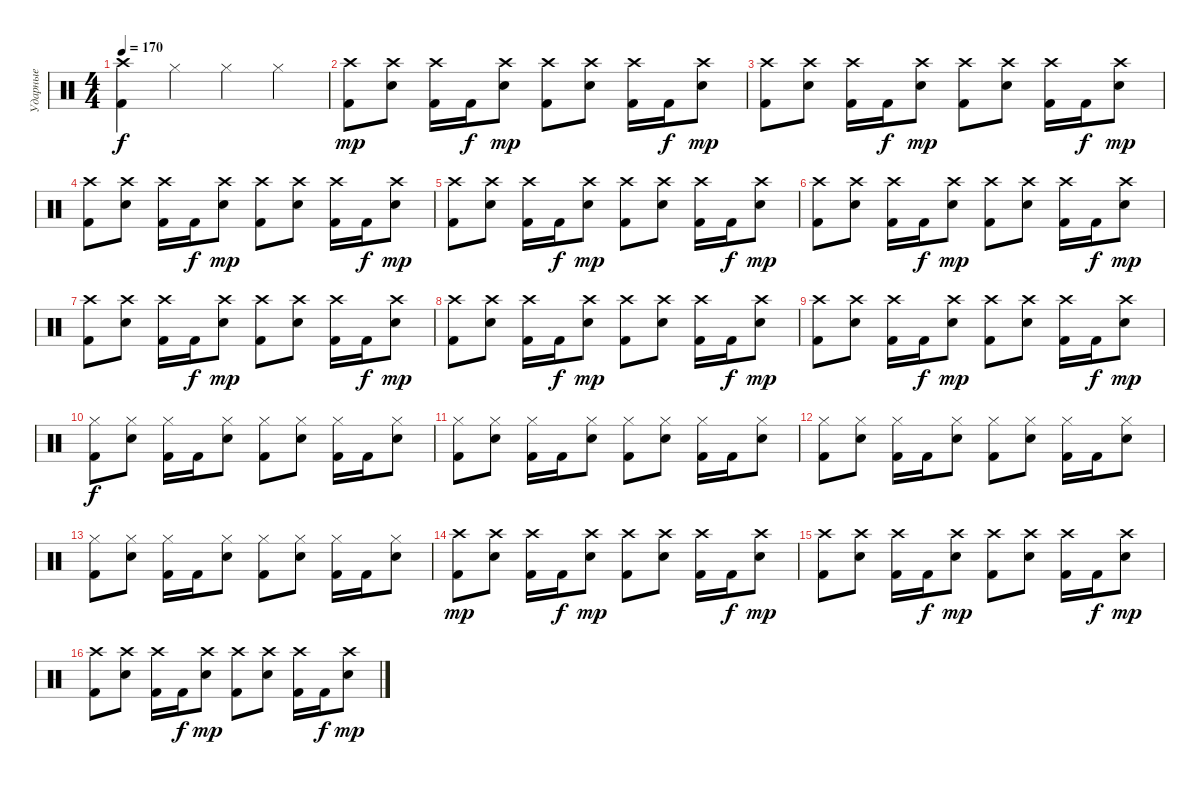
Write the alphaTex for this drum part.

\track ("Ударные" "Ударные") {instrument percussion}
\staff {score}
\articulation defaults
\ts (4 4)
\tempo 170
\clef neutral
\ks c
("Crash high (hit)" "Kick (hit) 2").4{dy f} "Hi-Hat (closed)".4 "Hi-Hat (closed)".4 "Hi-Hat (closed)".4 |
("Crash high (hit)" "Kick (hit) 2").8{dy mp} ("Crash high (hit)" "Electric Snare (hit)").8 ("Crash high (hit)" "Kick (hit) 2").16 "Kick (hit) 2".16{dy f} ("Crash high (hit)" "Electric Snare (hit)").8{dy mp} ("Crash high (hit)" "Kick (hit) 2").8 ("Crash high (hit)" "Electric Snare (hit)").8 ("Crash high (hit)" "Kick (hit) 2").16 "Kick (hit) 2".16{dy f} ("Crash high (hit)" "Electric Snare (hit)").8{dy mp} |
("Crash high (hit)" "Kick (hit) 2").8 ("Crash high (hit)" "Electric Snare (hit)").8 ("Crash high (hit)" "Kick (hit) 2").16 "Kick (hit) 2".16{dy f} ("Crash high (hit)" "Electric Snare (hit)").8{dy mp} ("Crash high (hit)" "Kick (hit) 2").8 ("Crash high (hit)" "Electric Snare (hit)").8 ("Crash high (hit)" "Kick (hit) 2").16 "Kick (hit) 2".16{dy f} ("Crash high (hit)" "Electric Snare (hit)").8{dy mp} |
("Crash high (hit)" "Kick (hit) 2").8 ("Crash high (hit)" "Electric Snare (hit)").8 ("Crash high (hit)" "Kick (hit) 2").16 "Kick (hit) 2".16{dy f} ("Crash high (hit)" "Electric Snare (hit)").8{dy mp} ("Crash high (hit)" "Kick (hit) 2").8 ("Crash high (hit)" "Electric Snare (hit)").8 ("Crash high (hit)" "Kick (hit) 2").16 "Kick (hit) 2".16{dy f} ("Crash high (hit)" "Electric Snare (hit)").8{dy mp} |
("Crash high (hit)" "Kick (hit) 2").8 ("Crash high (hit)" "Electric Snare (hit)").8 ("Crash high (hit)" "Kick (hit) 2").16 "Kick (hit) 2".16{dy f} ("Crash high (hit)" "Electric Snare (hit)").8{dy mp} ("Crash high (hit)" "Kick (hit) 2").8 ("Crash high (hit)" "Electric Snare (hit)").8 ("Crash high (hit)" "Kick (hit) 2").16 "Kick (hit) 2".16{dy f} ("Crash high (hit)" "Electric Snare (hit)").8{dy mp} |
("Crash high (hit)" "Kick (hit) 2").8 ("Crash high (hit)" "Electric Snare (hit)").8 ("Crash high (hit)" "Kick (hit) 2").16 "Kick (hit) 2".16{dy f} ("Crash high (hit)" "Electric Snare (hit)").8{dy mp} ("Crash high (hit)" "Kick (hit) 2").8 ("Crash high (hit)" "Electric Snare (hit)").8 ("Crash high (hit)" "Kick (hit) 2").16 "Kick (hit) 2".16{dy f} ("Crash high (hit)" "Electric Snare (hit)").8{dy mp} |
("Crash high (hit)" "Kick (hit) 2").8 ("Crash high (hit)" "Electric Snare (hit)").8 ("Crash high (hit)" "Kick (hit) 2").16 "Kick (hit) 2".16{dy f} ("Crash high (hit)" "Electric Snare (hit)").8{dy mp} ("Crash high (hit)" "Kick (hit) 2").8 ("Crash high (hit)" "Electric Snare (hit)").8 ("Crash high (hit)" "Kick (hit) 2").16 "Kick (hit) 2".16{dy f} ("Crash high (hit)" "Electric Snare (hit)").8{dy mp} |
("Crash high (hit)" "Kick (hit) 2").8 ("Crash high (hit)" "Electric Snare (hit)").8 ("Crash high (hit)" "Kick (hit) 2").16 "Kick (hit) 2".16{dy f} ("Crash high (hit)" "Electric Snare (hit)").8{dy mp} ("Crash high (hit)" "Kick (hit) 2").8 ("Crash high (hit)" "Electric Snare (hit)").8 ("Crash high (hit)" "Kick (hit) 2").16 "Kick (hit) 2".16{dy f} ("Crash high (hit)" "Electric Snare (hit)").8{dy mp} |
("Crash high (hit)" "Kick (hit) 2").8 ("Crash high (hit)" "Electric Snare (hit)").8 ("Crash high (hit)" "Kick (hit) 2").16 "Kick (hit) 2".16{dy f} ("Crash high (hit)" "Electric Snare (hit)").8{dy mp} ("Crash high (hit)" "Kick (hit) 2").8 ("Crash high (hit)" "Electric Snare (hit)").8 ("Crash high (hit)" "Kick (hit) 2").16 "Kick (hit) 2".16{dy f} ("Crash high (hit)" "Electric Snare (hit)").8{dy mp} |
("Hi-Hat (closed)" "Kick (hit) 2").8{dy f} ("Hi-Hat (closed)" "Electric Snare (hit)").8 ("Hi-Hat (closed)" "Kick (hit) 2").16 "Kick (hit) 2".16 ("Hi-Hat (closed)" "Electric Snare (hit)").8 ("Hi-Hat (closed)" "Kick (hit) 2").8 ("Hi-Hat (closed)" "Electric Snare (hit)").8 ("Hi-Hat (closed)" "Kick (hit) 2").16 "Kick (hit) 2".16 ("Hi-Hat (closed)" "Electric Snare (hit)").8 |
("Hi-Hat (closed)" "Kick (hit) 2").8 ("Hi-Hat (closed)" "Electric Snare (hit)").8 ("Hi-Hat (closed)" "Kick (hit) 2").16 "Kick (hit) 2".16 ("Hi-Hat (closed)" "Electric Snare (hit)").8 ("Hi-Hat (closed)" "Kick (hit) 2").8 ("Hi-Hat (closed)" "Electric Snare (hit)").8 ("Hi-Hat (closed)" "Kick (hit) 2").16 "Kick (hit) 2".16 ("Hi-Hat (closed)" "Electric Snare (hit)").8 |
("Hi-Hat (closed)" "Kick (hit) 2").8 ("Hi-Hat (closed)" "Electric Snare (hit)").8 ("Hi-Hat (closed)" "Kick (hit) 2").16 "Kick (hit) 2".16 ("Hi-Hat (closed)" "Electric Snare (hit)").8 ("Hi-Hat (closed)" "Kick (hit) 2").8 ("Hi-Hat (closed)" "Electric Snare (hit)").8 ("Hi-Hat (closed)" "Kick (hit) 2").16 "Kick (hit) 2".16 ("Hi-Hat (closed)" "Electric Snare (hit)").8 |
("Hi-Hat (closed)" "Kick (hit) 2").8 ("Hi-Hat (closed)" "Electric Snare (hit)").8 ("Hi-Hat (closed)" "Kick (hit) 2").16 "Kick (hit) 2".16 ("Hi-Hat (closed)" "Electric Snare (hit)").8 ("Hi-Hat (closed)" "Kick (hit) 2").8 ("Hi-Hat (closed)" "Electric Snare (hit)").8 ("Hi-Hat (closed)" "Kick (hit) 2").16 "Kick (hit) 2".16 ("Hi-Hat (closed)" "Electric Snare (hit)").8 |
("Crash high (hit)" "Kick (hit) 2").8{dy mp} ("Crash high (hit)" "Electric Snare (hit)").8 ("Crash high (hit)" "Kick (hit) 2").16 "Kick (hit) 2".16{dy f} ("Crash high (hit)" "Electric Snare (hit)").8{dy mp} ("Crash high (hit)" "Kick (hit) 2").8 ("Crash high (hit)" "Electric Snare (hit)").8 ("Crash high (hit)" "Kick (hit) 2").16 "Kick (hit) 2".16{dy f} ("Crash high (hit)" "Electric Snare (hit)").8{dy mp} |
("Crash high (hit)" "Kick (hit) 2").8 ("Crash high (hit)" "Electric Snare (hit)").8 ("Crash high (hit)" "Kick (hit) 2").16 "Kick (hit) 2".16{dy f} ("Crash high (hit)" "Electric Snare (hit)").8{dy mp} ("Crash high (hit)" "Kick (hit) 2").8 ("Crash high (hit)" "Electric Snare (hit)").8 ("Crash high (hit)" "Kick (hit) 2").16 "Kick (hit) 2".16{dy f} ("Crash high (hit)" "Electric Snare (hit)").8{dy mp} |
("Crash high (hit)" "Kick (hit) 2").8 ("Crash high (hit)" "Electric Snare (hit)").8 ("Crash high (hit)" "Kick (hit) 2").16 "Kick (hit) 2".16{dy f} ("Crash high (hit)" "Electric Snare (hit)").8{dy mp} ("Crash high (hit)" "Kick (hit) 2").8 ("Crash high (hit)" "Electric Snare (hit)").8 ("Crash high (hit)" "Kick (hit) 2").16 "Kick (hit) 2".16{dy f} ("Crash high (hit)" "Electric Snare (hit)").8{dy mp}
